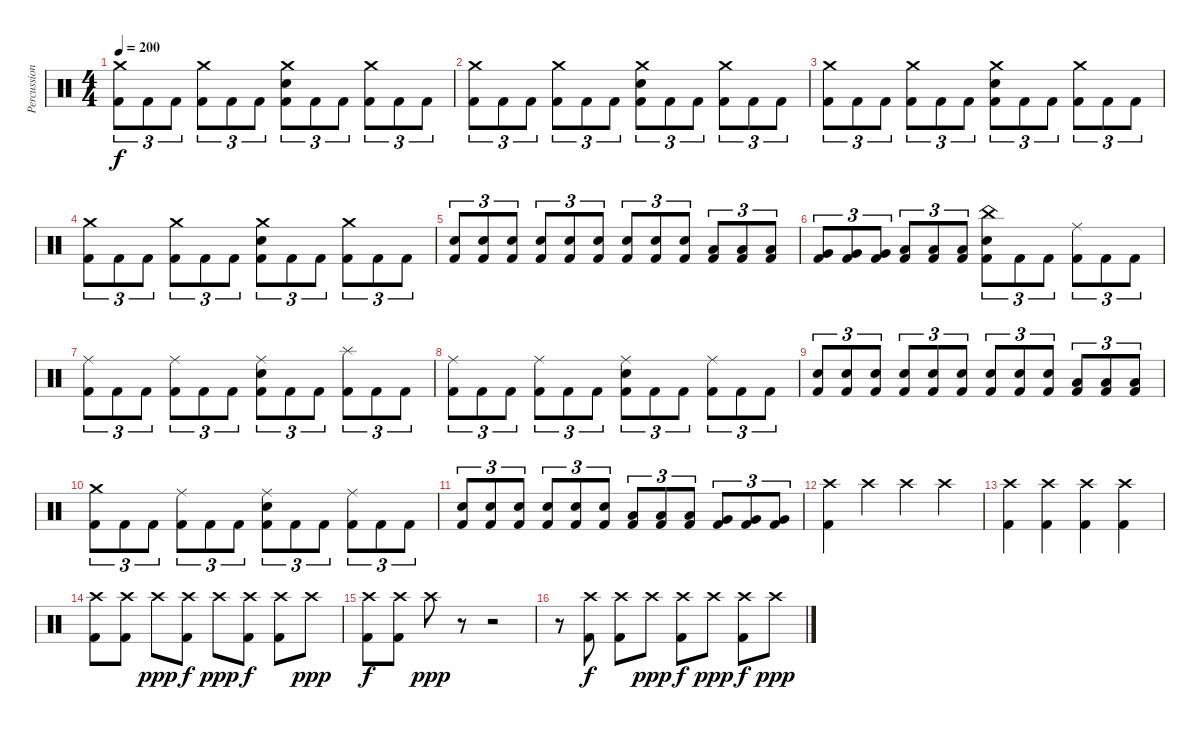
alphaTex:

\track ("Percussion" "Percussion") {instrument percussion}
\staff {score}
\articulation defaults
\ts (4 4)
\tempo 200
\clef neutral
\ks c
("Crash medium (hit)" "Kick (hit) 2").8{tu (3 2) dy f} "Kick (hit) 2".8{tu (3 2)} "Kick (hit) 2".8{tu (3 2)} ("Crash medium (hit)" "Kick (hit) 2").8{tu (3 2)} "Kick (hit) 2".8{tu (3 2)} "Kick (hit) 2".8{tu (3 2)} ("Crash medium (hit)" "Electric Snare (hit)" "Kick (hit) 2").8{tu (3 2)} "Kick (hit) 2".8{tu (3 2)} "Kick (hit) 2".8{tu (3 2)} ("Crash medium (hit)" "Kick (hit) 2").8{tu (3 2)} "Kick (hit) 2".8{tu (3 2)} "Kick (hit) 2".8{tu (3 2)} |
("Crash medium (hit)" "Kick (hit) 2").8{tu (3 2)} "Kick (hit) 2".8{tu (3 2)} "Kick (hit) 2".8{tu (3 2)} ("Crash medium (hit)" "Kick (hit) 2").8{tu (3 2)} "Kick (hit) 2".8{tu (3 2)} "Kick (hit) 2".8{tu (3 2)} ("Crash medium (hit)" "Electric Snare (hit)" "Kick (hit) 2").8{tu (3 2)} "Kick (hit) 2".8{tu (3 2)} "Kick (hit) 2".8{tu (3 2)} ("Crash medium (hit)" "Kick (hit) 2").8{tu (3 2)} "Kick (hit) 2".8{tu (3 2)} "Kick (hit) 2".8{tu (3 2)} |
("Crash medium (hit)" "Kick (hit) 2").8{tu (3 2)} "Kick (hit) 2".8{tu (3 2)} "Kick (hit) 2".8{tu (3 2)} ("Crash medium (hit)" "Kick (hit) 2").8{tu (3 2)} "Kick (hit) 2".8{tu (3 2)} "Kick (hit) 2".8{tu (3 2)} ("Crash medium (hit)" "Electric Snare (hit)" "Kick (hit) 2").8{tu (3 2)} "Kick (hit) 2".8{tu (3 2)} "Kick (hit) 2".8{tu (3 2)} ("Crash medium (hit)" "Kick (hit) 2").8{tu (3 2)} "Kick (hit) 2".8{tu (3 2)} "Kick (hit) 2".8{tu (3 2)} |
("Crash medium (hit)" "Kick (hit) 2").8{tu (3 2)} "Kick (hit) 2".8{tu (3 2)} "Kick (hit) 2".8{tu (3 2)} ("Crash medium (hit)" "Kick (hit) 2").8{tu (3 2)} "Kick (hit) 2".8{tu (3 2)} "Kick (hit) 2".8{tu (3 2)} ("Crash medium (hit)" "Electric Snare (hit)" "Kick (hit) 2").8{tu (3 2)} "Kick (hit) 2".8{tu (3 2)} "Kick (hit) 2".8{tu (3 2)} ("Crash medium (hit)" "Kick (hit) 2").8{tu (3 2)} "Kick (hit) 2".8{tu (3 2)} "Kick (hit) 2".8{tu (3 2)} |
("Electric Snare (hit)" "Kick (hit) 2").8{tu (3 2)} ("Electric Snare (hit)" "Kick (hit) 2").8{tu (3 2)} ("Electric Snare (hit)" "Kick (hit) 2").8{tu (3 2)} ("Electric Snare (hit)" "Kick (hit) 2").8{tu (3 2)} ("Electric Snare (hit)" "Kick (hit) 2").8{tu (3 2)} ("Electric Snare (hit)" "Kick (hit) 2").8{tu (3 2)} ("Electric Snare (hit)" "Kick (hit) 2").8{tu (3 2)} ("Electric Snare (hit)" "Kick (hit) 2").8{tu (3 2)} ("Electric Snare (hit)" "Kick (hit) 2").8{tu (3 2)} ("Low Tom (hit)" "Kick (hit) 2").8{tu (3 2)} ("Low Tom (hit)" "Kick (hit) 2").8{tu (3 2)} ("Low Tom (hit)" "Kick (hit) 2").8{tu (3 2)} |
("Very Low Tom (hit)" "Kick (hit) 2").8{tu (3 2)} ("Very Low Tom (hit)" "Kick (hit) 2").8{tu (3 2)} ("Very Low Tom (hit)" "Kick (hit) 2").8{tu (3 2)} ("Low Floor Tom (hit)" "Kick (hit) 2").8{tu (3 2)} ("Low Floor Tom (hit)" "Kick (hit) 2").8{tu (3 2)} ("Low Floor Tom (hit)" "Kick (hit) 2").8{tu (3 2)} ("China (hit)" "Electric Snare (hit)" "Kick (hit) 2").8{tu (3 2)} "Kick (hit) 2".8{tu (3 2)} "Kick (hit) 2".8{tu (3 2)} ("Ride (middle)" "Kick (hit) 2").8{tu (3 2)} "Kick (hit) 2".8{tu (3 2)} "Kick (hit) 2".8{tu (3 2)} |
("Ride (middle)" "Kick (hit) 2").8{tu (3 2)} "Kick (hit) 2".8{tu (3 2)} "Kick (hit) 2".8{tu (3 2)} ("Ride (middle)" "Kick (hit) 2").8{tu (3 2)} "Kick (hit) 2".8{tu (3 2)} "Kick (hit) 2".8{tu (3 2)} ("Ride (middle)" "Electric Snare (hit)" "Kick (hit) 2").8{tu (3 2)} "Kick (hit) 2".8{tu (3 2)} "Kick (hit) 2".8{tu (3 2)} ("Splash (hit)" "Kick (hit) 2").8{tu (3 2)} "Kick (hit) 2".8{tu (3 2)} "Kick (hit) 2".8{tu (3 2)} |
("Ride (middle)" "Kick (hit) 2").8{tu (3 2)} "Kick (hit) 2".8{tu (3 2)} "Kick (hit) 2".8{tu (3 2)} ("Ride (middle)" "Kick (hit) 2").8{tu (3 2)} "Kick (hit) 2".8{tu (3 2)} "Kick (hit) 2".8{tu (3 2)} ("Ride (middle)" "Electric Snare (hit)" "Kick (hit) 2").8{tu (3 2)} "Kick (hit) 2".8{tu (3 2)} "Kick (hit) 2".8{tu (3 2)} ("Ride (middle)" "Kick (hit) 2").8{tu (3 2)} "Kick (hit) 2".8{tu (3 2)} "Kick (hit) 2".8{tu (3 2)} |
("Electric Snare (hit)" "Kick (hit) 2").8{tu (3 2)} ("Electric Snare (hit)" "Kick (hit) 2").8{tu (3 2)} ("Electric Snare (hit)" "Kick (hit) 2").8{tu (3 2)} ("Electric Snare (hit)" "Kick (hit) 2").8{tu (3 2)} ("Electric Snare (hit)" "Kick (hit) 2").8{tu (3 2)} ("Electric Snare (hit)" "Kick (hit) 2").8{tu (3 2)} ("Electric Snare (hit)" "Kick (hit) 2").8{tu (3 2)} ("Electric Snare (hit)" "Kick (hit) 2").8{tu (3 2)} ("Electric Snare (hit)" "Kick (hit) 2").8{tu (3 2)} ("Low Tom (hit)" "Kick (hit) 2").8{tu (3 2)} ("Low Tom (hit)" "Kick (hit) 2").8{tu (3 2)} ("Low Tom (hit)" "Kick (hit) 2").8{tu (3 2)} |
("Crash medium (hit)" "Kick (hit) 2").8{tu (3 2)} "Kick (hit) 2".8{tu (3 2)} "Kick (hit) 2".8{tu (3 2)} ("Ride (middle)" "Kick (hit) 2").8{tu (3 2)} "Kick (hit) 2".8{tu (3 2)} "Kick (hit) 2".8{tu (3 2)} ("Ride (middle)" "Electric Snare (hit)" "Kick (hit) 2").8{tu (3 2)} "Kick (hit) 2".8{tu (3 2)} "Kick (hit) 2".8{tu (3 2)} ("Ride (middle)" "Kick (hit) 2").8{tu (3 2)} "Kick (hit) 2".8{tu (3 2)} "Kick (hit) 2".8{tu (3 2)} |
("Electric Snare (hit)" "Kick (hit) 2").8{tu (3 2)} ("Electric Snare (hit)" "Kick (hit) 2").8{tu (3 2)} ("Electric Snare (hit)" "Kick (hit) 2").8{tu (3 2)} ("Electric Snare (hit)" "Kick (hit) 2").8{tu (3 2)} ("Electric Snare (hit)" "Kick (hit) 2").8{tu (3 2)} ("Electric Snare (hit)" "Kick (hit) 2").8{tu (3 2)} ("Low Tom (hit)" "Kick (hit) 2").8{tu (3 2)} ("Low Tom (hit)" "Kick (hit) 2").8{tu (3 2)} ("Low Tom (hit)" "Kick (hit) 2").8{tu (3 2)} ("Very Low Tom (hit)" "Kick (hit) 2").8{tu (3 2)} ("Very Low Tom (hit)" "Kick (hit) 2").8{tu (3 2)} ("Very Low Tom (hit)" "Kick (hit) 2").8{tu (3 2)} |
("Crash high (hit)" "Kick (hit) 2").4 "Crash high (hit)".4 "Crash high (hit)".4 "Crash high (hit)".4 |
("Crash high (hit)" "Kick (hit) 2").4 ("Crash high (hit)" "Kick (hit) 2").4 ("Crash high (hit)" "Kick (hit) 2").4 ("Crash high (hit)" "Kick (hit) 2").4 |
("Crash high (hit)" "Kick (hit) 2").8 ("Crash high (hit)" "Kick (hit) 2").8 "Crash high (hit)".8{dy ppp} ("Crash high (hit)" "Kick (hit) 2").8{dy f} "Crash high (hit)".8{dy ppp} ("Crash high (hit)" "Kick (hit) 2").8{dy f} ("Crash high (hit)" "Kick (hit) 2").8 "Crash high (hit)".8{dy ppp} |
("Crash high (hit)" "Kick (hit) 2").8{dy f} ("Crash high (hit)" "Kick (hit) 2").8 "Crash high (hit)".8{dy ppp} r.8 r.2 |
r.8 ("Crash high (hit)" "Kick (hit) 2").8{dy f} ("Crash high (hit)" "Kick (hit) 2").8 "Crash high (hit)".8{dy ppp} ("Crash high (hit)" "Kick (hit) 2").8{dy f} "Crash high (hit)".8{dy ppp} ("Crash high (hit)" "Kick (hit) 2").8{dy f} "Crash high (hit)".8{dy ppp}
